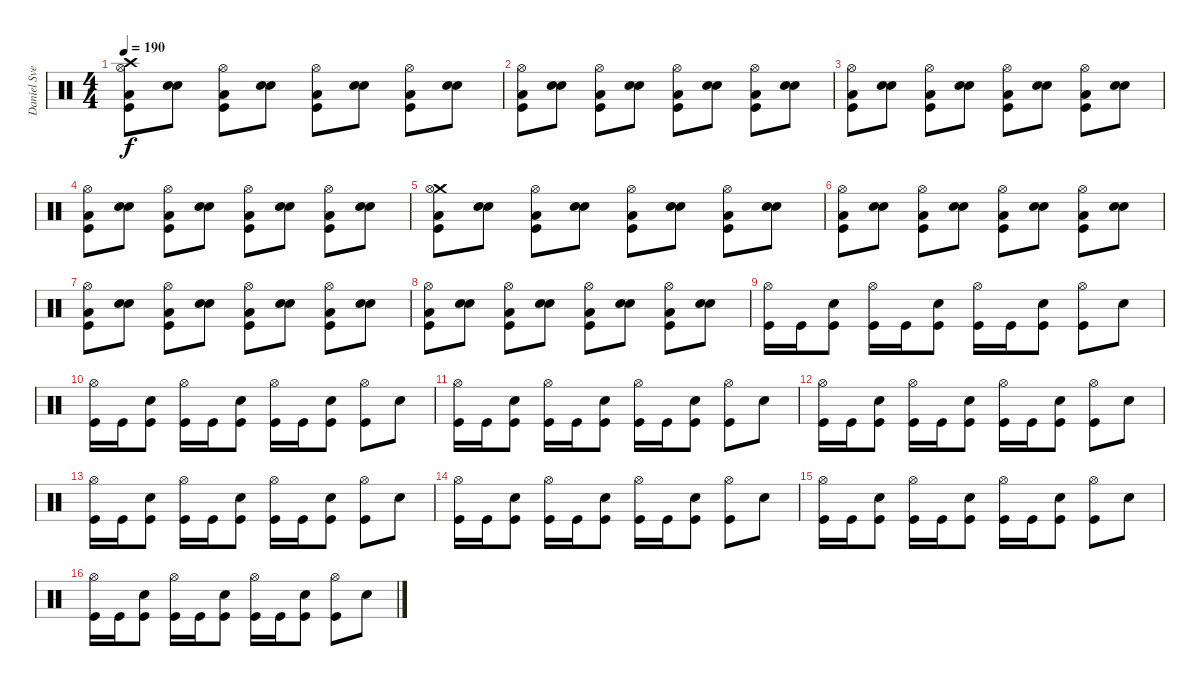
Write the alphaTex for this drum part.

\track ("Daniel Svensson" "Daniel Sve") {instrument percussion}
\staff {score}
\articulation defaults
\ts (4 4)
\tempo 190
\clef neutral
\ks c
("Crash high (hit)" "Hi-Hat (open)" "Low Floor Tom (hit)" "Kick (hit)").8{dy f} ("Electric Snare (hit)" "Electric Snare (hit)").8 ("Hi-Hat (open)" "Low Floor Tom (hit)" "Kick (hit)").8 ("Electric Snare (hit)" "Electric Snare (hit)").8 ("Hi-Hat (open)" "Low Floor Tom (hit)" "Kick (hit)").8 ("Electric Snare (hit)" "Electric Snare (hit)").8 ("Hi-Hat (open)" "Low Floor Tom (hit)" "Kick (hit)").8 ("Electric Snare (hit)" "Electric Snare (hit)").8 |
("Hi-Hat (open)" "Low Floor Tom (hit)" "Kick (hit)").8 ("Electric Snare (hit)" "Electric Snare (hit)").8 ("Hi-Hat (open)" "Low Floor Tom (hit)" "Kick (hit)").8 ("Electric Snare (hit)" "Electric Snare (hit)").8 ("Hi-Hat (open)" "Low Floor Tom (hit)" "Kick (hit)").8 ("Electric Snare (hit)" "Electric Snare (hit)").8 ("Hi-Hat (open)" "Low Floor Tom (hit)" "Kick (hit)").8 ("Electric Snare (hit)" "Electric Snare (hit)").8 |
("Hi-Hat (open)" "Low Floor Tom (hit)" "Kick (hit)").8 ("Electric Snare (hit)" "Electric Snare (hit)").8 ("Hi-Hat (open)" "Low Floor Tom (hit)" "Kick (hit)").8 ("Electric Snare (hit)" "Electric Snare (hit)").8 ("Hi-Hat (open)" "Low Floor Tom (hit)" "Kick (hit)").8 ("Electric Snare (hit)" "Electric Snare (hit)").8 ("Hi-Hat (open)" "Low Floor Tom (hit)" "Kick (hit)").8 ("Electric Snare (hit)" "Electric Snare (hit)").8 |
("Hi-Hat (open)" "Low Floor Tom (hit)" "Kick (hit)").8 ("Electric Snare (hit)" "Electric Snare (hit)").8 ("Hi-Hat (open)" "Low Floor Tom (hit)" "Kick (hit)").8 ("Electric Snare (hit)" "Electric Snare (hit)").8 ("Hi-Hat (open)" "Low Floor Tom (hit)" "Kick (hit)").8 ("Electric Snare (hit)" "Electric Snare (hit)").8 ("Hi-Hat (open)" "Low Floor Tom (hit)" "Kick (hit)").8 ("Electric Snare (hit)" "Electric Snare (hit)").8 |
("Crash medium (hit)" "Hi-Hat (open)" "Low Floor Tom (hit)" "Kick (hit)").8 ("Electric Snare (hit)" "Electric Snare (hit)").8 ("Hi-Hat (open)" "Low Floor Tom (hit)" "Kick (hit)").8 ("Electric Snare (hit)" "Electric Snare (hit)").8 ("Hi-Hat (open)" "Low Floor Tom (hit)" "Kick (hit)").8 ("Electric Snare (hit)" "Electric Snare (hit)").8 ("Hi-Hat (open)" "Low Floor Tom (hit)" "Kick (hit)").8 ("Electric Snare (hit)" "Electric Snare (hit)").8 |
("Hi-Hat (open)" "Low Floor Tom (hit)" "Kick (hit)").8 ("Electric Snare (hit)" "Electric Snare (hit)").8 ("Hi-Hat (open)" "Low Floor Tom (hit)" "Kick (hit)").8 ("Electric Snare (hit)" "Electric Snare (hit)").8 ("Hi-Hat (open)" "Low Floor Tom (hit)" "Kick (hit)").8 ("Electric Snare (hit)" "Electric Snare (hit)").8 ("Hi-Hat (open)" "Low Floor Tom (hit)" "Kick (hit)").8 ("Electric Snare (hit)" "Electric Snare (hit)").8 |
("Hi-Hat (open)" "Low Floor Tom (hit)" "Kick (hit)").8 ("Electric Snare (hit)" "Electric Snare (hit)").8 ("Hi-Hat (open)" "Low Floor Tom (hit)" "Kick (hit)").8 ("Electric Snare (hit)" "Electric Snare (hit)").8 ("Hi-Hat (open)" "Low Floor Tom (hit)" "Kick (hit)").8 ("Electric Snare (hit)" "Electric Snare (hit)").8 ("Hi-Hat (open)" "Low Floor Tom (hit)" "Kick (hit)").8 ("Electric Snare (hit)" "Electric Snare (hit)").8 |
("Hi-Hat (open)" "Low Floor Tom (hit)" "Kick (hit)").8 ("Electric Snare (hit)" "Electric Snare (hit)").8 ("Hi-Hat (open)" "Low Floor Tom (hit)" "Kick (hit)").8 ("Electric Snare (hit)" "Electric Snare (hit)").8 ("Hi-Hat (open)" "Low Floor Tom (hit)" "Kick (hit)").8 ("Electric Snare (hit)" "Electric Snare (hit)").8 ("Hi-Hat (open)" "Low Floor Tom (hit)" "Kick (hit)").8 ("Electric Snare (hit)" "Electric Snare (hit)").8 |
("Hi-Hat (open)" "Kick (hit)").16 "Kick (hit)".16 ("Electric Snare (hit)" "Kick (hit)").8 ("Hi-Hat (open)" "Kick (hit)").16 "Kick (hit)".16 ("Electric Snare (hit)" "Kick (hit)").8 ("Hi-Hat (open)" "Kick (hit)").16 "Kick (hit)".16 ("Electric Snare (hit)" "Kick (hit)").8 ("Hi-Hat (open)" "Kick (hit)").8 "Electric Snare (hit)".8 |
("Hi-Hat (open)" "Kick (hit)").16 "Kick (hit)".16 ("Electric Snare (hit)" "Kick (hit)").8 ("Hi-Hat (open)" "Kick (hit)").16 "Kick (hit)".16 ("Electric Snare (hit)" "Kick (hit)").8 ("Hi-Hat (open)" "Kick (hit)").16 "Kick (hit)".16 ("Electric Snare (hit)" "Kick (hit)").8 ("Hi-Hat (open)" "Kick (hit)").8 "Electric Snare (hit)".8 |
("Hi-Hat (open)" "Kick (hit)").16 "Kick (hit)".16 ("Electric Snare (hit)" "Kick (hit)").8 ("Hi-Hat (open)" "Kick (hit)").16 "Kick (hit)".16 ("Electric Snare (hit)" "Kick (hit)").8 ("Hi-Hat (open)" "Kick (hit)").16 "Kick (hit)".16 ("Electric Snare (hit)" "Kick (hit)").8 ("Hi-Hat (open)" "Kick (hit)").8 "Electric Snare (hit)".8 |
("Hi-Hat (open)" "Kick (hit)").16 "Kick (hit)".16 ("Electric Snare (hit)" "Kick (hit)").8 ("Hi-Hat (open)" "Kick (hit)").16 "Kick (hit)".16 ("Electric Snare (hit)" "Kick (hit)").8 ("Hi-Hat (open)" "Kick (hit)").16 "Kick (hit)".16 ("Electric Snare (hit)" "Kick (hit)").8 ("Hi-Hat (open)" "Kick (hit)").8 "Electric Snare (hit)".8 |
("Hi-Hat (open)" "Kick (hit)").16 "Kick (hit)".16 ("Electric Snare (hit)" "Kick (hit)").8 ("Hi-Hat (open)" "Kick (hit)").16 "Kick (hit)".16 ("Electric Snare (hit)" "Kick (hit)").8 ("Hi-Hat (open)" "Kick (hit)").16 "Kick (hit)".16 ("Electric Snare (hit)" "Kick (hit)").8 ("Hi-Hat (open)" "Kick (hit)").8 "Electric Snare (hit)".8 |
("Hi-Hat (open)" "Kick (hit)").16 "Kick (hit)".16 ("Electric Snare (hit)" "Kick (hit)").8 ("Hi-Hat (open)" "Kick (hit)").16 "Kick (hit)".16 ("Electric Snare (hit)" "Kick (hit)").8 ("Hi-Hat (open)" "Kick (hit)").16 "Kick (hit)".16 ("Electric Snare (hit)" "Kick (hit)").8 ("Hi-Hat (open)" "Kick (hit)").8 "Electric Snare (hit)".8 |
("Hi-Hat (open)" "Kick (hit)").16 "Kick (hit)".16 ("Electric Snare (hit)" "Kick (hit)").8 ("Hi-Hat (open)" "Kick (hit)").16 "Kick (hit)".16 ("Electric Snare (hit)" "Kick (hit)").8 ("Hi-Hat (open)" "Kick (hit)").16 "Kick (hit)".16 ("Electric Snare (hit)" "Kick (hit)").8 ("Hi-Hat (open)" "Kick (hit)").8 "Electric Snare (hit)".8 |
("Hi-Hat (open)" "Kick (hit)").16 "Kick (hit)".16 ("Electric Snare (hit)" "Kick (hit)").8 ("Hi-Hat (open)" "Kick (hit)").16 "Kick (hit)".16 ("Electric Snare (hit)" "Kick (hit)").8 ("Hi-Hat (open)" "Kick (hit)").16 "Kick (hit)".16 ("Electric Snare (hit)" "Kick (hit)").8 ("Hi-Hat (open)" "Kick (hit)").8 "Electric Snare (hit)".8
